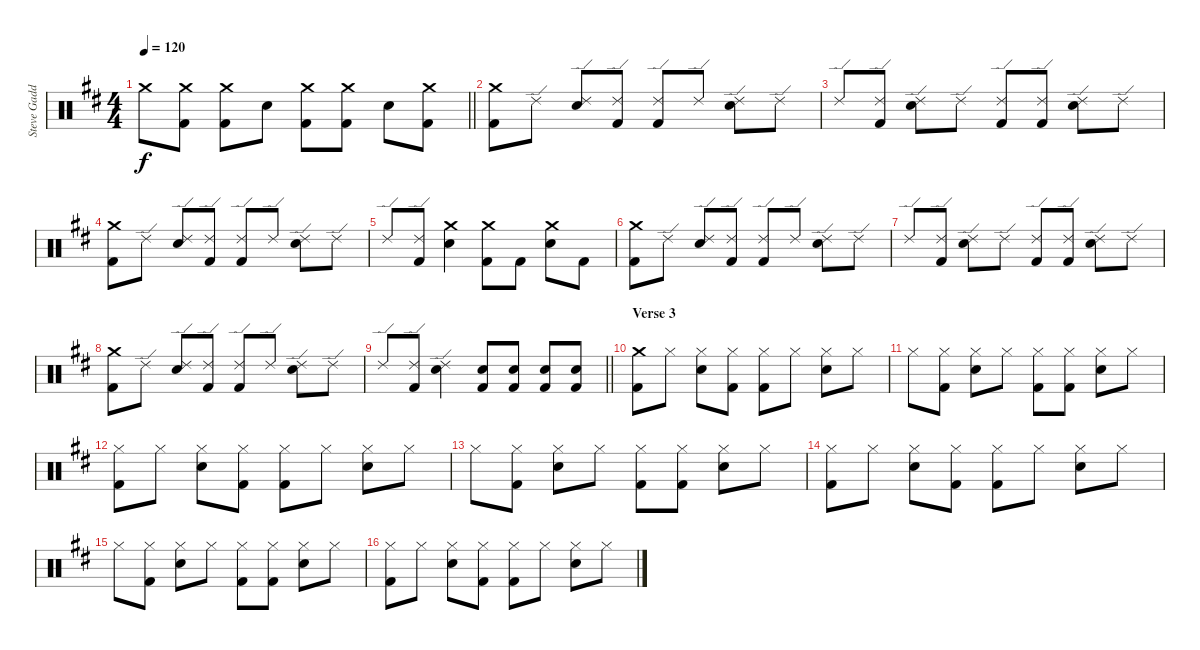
\track ("Steve Gadd Drums" "Steve Gadd") {instrument percussion}
\staff {score}
\articulation defaults
\ts (4 4)
\tempo 120
\clef neutral
\barLineRight lightlight
\ks d "Crash medium (hit)".8{dy f}
("Crash medium (hit)" "Kick (hit) 2").8 ("Crash medium (hit)" "Kick (hit) 2").8 "Snare (hit) 2".8 ("Crash medium (hit)" "Kick (hit) 2").8 ("Crash medium (hit)" "Kick (hit) 2").8 "Snare (hit) 2".8 ("Crash medium (hit)" "Kick (hit) 2").8 |
("Crash medium (hit)" "Kick (hit) 2").8 "Ride (edge) 2".8 ("Ride (edge) 2" "Snare (hit) 2").8 ("Ride (edge) 2" "Kick (hit) 2").8 ("Ride (edge) 2" "Kick (hit) 2").8 "Ride (edge) 2".8 ("Ride (edge) 2" "Snare (hit) 2").8 "Ride (edge) 2".8 |
"Ride (edge) 2".8 ("Ride (edge) 2" "Kick (hit) 2").8 ("Ride (edge) 2" "Snare (hit) 2").8 "Ride (edge) 2".8 ("Ride (edge) 2" "Kick (hit) 2").8 ("Ride (edge) 2" "Kick (hit) 2").8 ("Ride (edge) 2" "Snare (hit) 2").8 "Ride (edge) 2".8 |
("Crash medium (hit)" "Kick (hit) 2").8 "Ride (edge) 2".8 ("Ride (edge) 2" "Snare (hit) 2").8 ("Ride (edge) 2" "Kick (hit) 2").8 ("Ride (edge) 2" "Kick (hit) 2").8 "Ride (edge) 2".8 ("Ride (edge) 2" "Snare (hit) 2").8 "Ride (edge) 2".8 |
"Ride (edge) 2".8 ("Ride (edge) 2" "Kick (hit) 2").8 ("Crash medium (hit)" "Snare (hit) 2").4 ("Crash medium (hit)" "Kick (hit) 2").8 "Kick (hit) 2".8 ("Crash medium (hit)" "Snare (hit) 2").8 "Kick (hit) 2".8 |
("Crash medium (hit)" "Kick (hit) 2").8 "Ride (edge) 2".8 ("Ride (edge) 2" "Snare (hit) 2").8 ("Ride (edge) 2" "Kick (hit) 2").8 ("Ride (edge) 2" "Kick (hit) 2").8 "Ride (edge) 2".8 ("Ride (edge) 2" "Snare (hit) 2").8 "Ride (edge) 2".8 |
"Ride (edge) 2".8 ("Ride (edge) 2" "Kick (hit) 2").8 ("Ride (edge) 2" "Snare (hit) 2").8 "Ride (edge) 2".8 ("Ride (edge) 2" "Kick (hit) 2").8 ("Ride (edge) 2" "Kick (hit) 2").8 ("Ride (edge) 2" "Snare (hit) 2").8 "Ride (edge) 2".8 |
("Crash medium (hit)" "Kick (hit) 2").8 "Ride (edge) 2".8 ("Ride (edge) 2" "Snare (hit) 2").8 ("Ride (edge) 2" "Kick (hit) 2").8 ("Ride (edge) 2" "Kick (hit) 2").8 "Ride (edge) 2".8 ("Ride (edge) 2" "Snare (hit) 2").8 "Ride (edge) 2".8 |
\barLineRight lightlight "Ride (edge) 2".8
("Ride (edge) 2" "Kick (hit) 2").8 ("Ride (edge) 2" "Snare (hit) 2").4 ("Snare (hit) 2" "Kick (hit) 2").8 ("Snare (hit) 2" "Kick (hit) 2").8 ("Snare (hit) 2" "Kick (hit) 2").8 ("Snare (hit) 2" "Kick (hit) 2").8 |
\section ("" "Verse 3")
("Crash medium (hit)" "Kick (hit) 2").8 "Hi-Hat (closed)".8 ("Hi-Hat (closed)" "Snare (hit) 2").8 ("Hi-Hat (closed)" "Kick (hit) 2").8 ("Hi-Hat (closed)" "Kick (hit) 2").8 "Hi-Hat (closed)".8 ("Hi-Hat (closed)" "Snare (hit) 2").8 "Hi-Hat (closed)".8 |
"Hi-Hat (closed)".8 ("Hi-Hat (closed)" "Kick (hit) 2").8 ("Hi-Hat (closed)" "Snare (hit) 2").8 "Hi-Hat (closed)".8 ("Hi-Hat (closed)" "Kick (hit) 2").8 ("Hi-Hat (closed)" "Kick (hit) 2").8 ("Hi-Hat (closed)" "Snare (hit) 2").8 "Hi-Hat (closed)".8 |
("Hi-Hat (closed)" "Kick (hit) 2").8 "Hi-Hat (closed)".8 ("Hi-Hat (closed)" "Snare (hit) 2").8 ("Hi-Hat (closed)" "Kick (hit) 2").8 ("Hi-Hat (closed)" "Kick (hit) 2").8 "Hi-Hat (closed)".8 ("Hi-Hat (closed)" "Snare (hit) 2").8 "Hi-Hat (closed)".8 |
"Hi-Hat (closed)".8 ("Hi-Hat (closed)" "Kick (hit) 2").8 ("Hi-Hat (closed)" "Snare (hit) 2").8 "Hi-Hat (closed)".8 ("Hi-Hat (closed)" "Kick (hit) 2").8 ("Hi-Hat (closed)" "Kick (hit) 2").8 ("Hi-Hat (closed)" "Snare (hit) 2").8 "Hi-Hat (closed)".8 |
("Hi-Hat (closed)" "Kick (hit) 2").8 "Hi-Hat (closed)".8 ("Hi-Hat (closed)" "Snare (hit) 2").8 ("Hi-Hat (closed)" "Kick (hit) 2").8 ("Hi-Hat (closed)" "Kick (hit) 2").8 "Hi-Hat (closed)".8 ("Hi-Hat (closed)" "Snare (hit) 2").8 "Hi-Hat (closed)".8 |
"Hi-Hat (closed)".8 ("Hi-Hat (closed)" "Kick (hit) 2").8 ("Hi-Hat (closed)" "Snare (hit) 2").8 "Hi-Hat (closed)".8 ("Hi-Hat (closed)" "Kick (hit) 2").8 ("Hi-Hat (closed)" "Kick (hit) 2").8 ("Hi-Hat (closed)" "Snare (hit) 2").8 "Hi-Hat (closed)".8 |
("Hi-Hat (closed)" "Kick (hit) 2").8 "Hi-Hat (closed)".8 ("Hi-Hat (closed)" "Snare (hit) 2").8 ("Hi-Hat (closed)" "Kick (hit) 2").8 ("Hi-Hat (closed)" "Kick (hit) 2").8 "Hi-Hat (closed)".8 ("Hi-Hat (closed)" "Snare (hit) 2").8 "Hi-Hat (closed)".8
